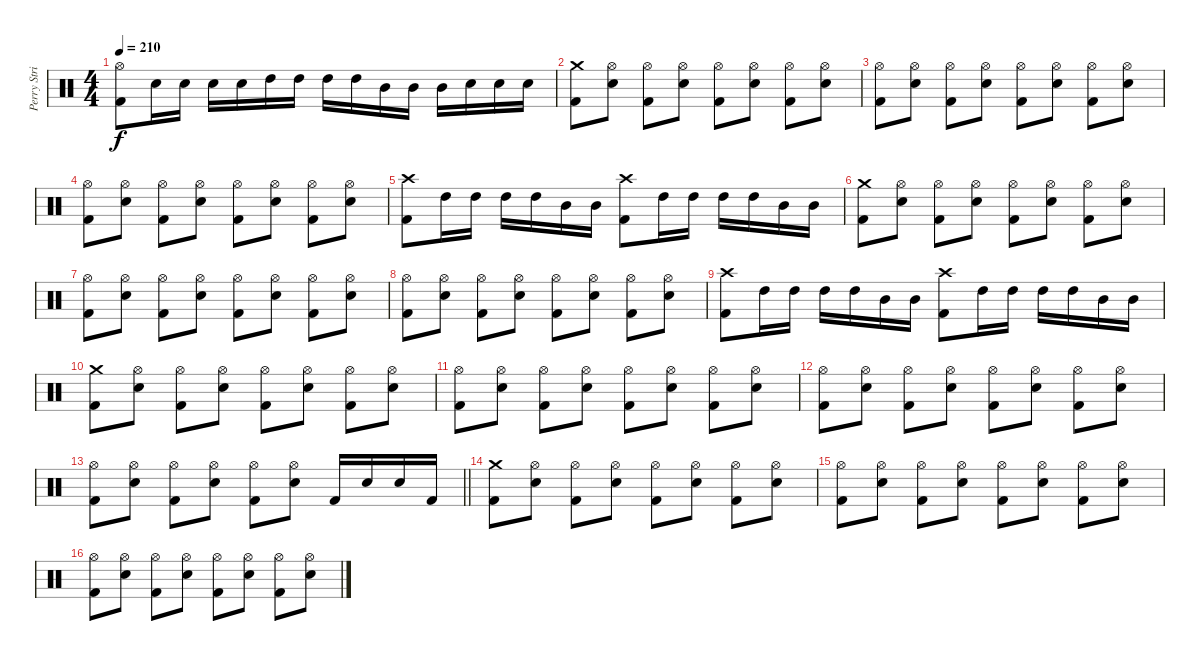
\track ("Perry Strickland" "Perry Stri") {instrument percussion}
\staff {score}
\articulation defaults
\ts (4 4)
\tempo 210
\clef neutral
\ks c
("Hi-Hat (open)" "Kick (hit) 2").8{dy f} "Electric Snare (hit)".16 "Electric Snare (hit)".16 "Electric Snare (hit)".16 "Electric Snare (hit)".16 "High Tom (hit)".16 "High Tom (hit)".16 "High Tom (hit)".16 "High Tom (hit)".16 "Mid Tom (hit)".16 "Mid Tom (hit)".16 "Mid Tom (hit)".16 "Electric Snare (hit)".16 "Electric Snare (hit)".16 "Electric Snare (hit)".16 |
("Crash medium (hit)" "Kick (hit) 2").8 ("Hi-Hat (open)" "Electric Snare (hit)").8 ("Hi-Hat (open)" "Kick (hit) 2").8 ("Hi-Hat (open)" "Electric Snare (hit)").8 ("Hi-Hat (open)" "Kick (hit) 2").8 ("Hi-Hat (open)" "Electric Snare (hit)").8 ("Hi-Hat (open)" "Kick (hit) 2").8 ("Hi-Hat (open)" "Electric Snare (hit)").8 |
("Hi-Hat (open)" "Kick (hit) 2").8 ("Hi-Hat (open)" "Electric Snare (hit)").8 ("Hi-Hat (open)" "Kick (hit) 2").8 ("Hi-Hat (open)" "Electric Snare (hit)").8 ("Hi-Hat (open)" "Kick (hit) 2").8 ("Hi-Hat (open)" "Electric Snare (hit)").8 ("Hi-Hat (open)" "Kick (hit) 2").8 ("Hi-Hat (open)" "Electric Snare (hit)").8 |
("Hi-Hat (open)" "Kick (hit) 2").8 ("Hi-Hat (open)" "Electric Snare (hit)").8 ("Hi-Hat (open)" "Kick (hit) 2").8 ("Hi-Hat (open)" "Electric Snare (hit)").8 ("Hi-Hat (open)" "Kick (hit) 2").8 ("Hi-Hat (open)" "Electric Snare (hit)").8 ("Hi-Hat (open)" "Kick (hit) 2").8 ("Hi-Hat (open)" "Electric Snare (hit)").8 |
("Crash high (hit)" "Kick (hit) 2").8 "High Tom (hit)".16 "High Tom (hit)".16 "High Tom (hit)".16 "High Tom (hit)".16 "Mid Tom (hit)".16 "Mid Tom (hit)".16 ("Crash high (hit)" "Kick (hit) 2").8 "High Tom (hit)".16 "High Tom (hit)".16 "High Tom (hit)".16 "High Tom (hit)".16 "Mid Tom (hit)".16 "Mid Tom (hit)".16 |
("Crash medium (hit)" "Kick (hit) 2").8 ("Hi-Hat (open)" "Electric Snare (hit)").8 ("Hi-Hat (open)" "Kick (hit) 2").8 ("Hi-Hat (open)" "Electric Snare (hit)").8 ("Hi-Hat (open)" "Kick (hit) 2").8 ("Hi-Hat (open)" "Electric Snare (hit)").8 ("Hi-Hat (open)" "Kick (hit) 2").8 ("Hi-Hat (open)" "Electric Snare (hit)").8 |
("Hi-Hat (open)" "Kick (hit) 2").8 ("Hi-Hat (open)" "Electric Snare (hit)").8 ("Hi-Hat (open)" "Kick (hit) 2").8 ("Hi-Hat (open)" "Electric Snare (hit)").8 ("Hi-Hat (open)" "Kick (hit) 2").8 ("Hi-Hat (open)" "Electric Snare (hit)").8 ("Hi-Hat (open)" "Kick (hit) 2").8 ("Hi-Hat (open)" "Electric Snare (hit)").8 |
("Hi-Hat (open)" "Kick (hit) 2").8 ("Hi-Hat (open)" "Electric Snare (hit)").8 ("Hi-Hat (open)" "Kick (hit) 2").8 ("Hi-Hat (open)" "Electric Snare (hit)").8 ("Hi-Hat (open)" "Kick (hit) 2").8 ("Hi-Hat (open)" "Electric Snare (hit)").8 ("Hi-Hat (open)" "Kick (hit) 2").8 ("Hi-Hat (open)" "Electric Snare (hit)").8 |
("Crash high (hit)" "Kick (hit) 2").8 "High Tom (hit)".16 "High Tom (hit)".16 "High Tom (hit)".16 "High Tom (hit)".16 "Mid Tom (hit)".16 "Mid Tom (hit)".16 ("Crash high (hit)" "Kick (hit) 2").8 "High Tom (hit)".16 "High Tom (hit)".16 "High Tom (hit)".16 "High Tom (hit)".16 "Mid Tom (hit)".16 "Mid Tom (hit)".16 |
("Crash medium (hit)" "Kick (hit) 2").8 ("Hi-Hat (open)" "Electric Snare (hit)").8 ("Hi-Hat (open)" "Kick (hit) 2").8 ("Hi-Hat (open)" "Electric Snare (hit)").8 ("Hi-Hat (open)" "Kick (hit) 2").8 ("Hi-Hat (open)" "Electric Snare (hit)").8 ("Hi-Hat (open)" "Kick (hit) 2").8 ("Hi-Hat (open)" "Electric Snare (hit)").8 |
("Hi-Hat (open)" "Kick (hit) 2").8 ("Hi-Hat (open)" "Electric Snare (hit)").8 ("Hi-Hat (open)" "Kick (hit) 2").8 ("Hi-Hat (open)" "Electric Snare (hit)").8 ("Hi-Hat (open)" "Kick (hit) 2").8 ("Hi-Hat (open)" "Electric Snare (hit)").8 ("Hi-Hat (open)" "Kick (hit) 2").8 ("Hi-Hat (open)" "Electric Snare (hit)").8 |
("Hi-Hat (open)" "Kick (hit) 2").8 ("Hi-Hat (open)" "Electric Snare (hit)").8 ("Hi-Hat (open)" "Kick (hit) 2").8 ("Hi-Hat (open)" "Electric Snare (hit)").8 ("Hi-Hat (open)" "Kick (hit) 2").8 ("Hi-Hat (open)" "Electric Snare (hit)").8 ("Hi-Hat (open)" "Kick (hit) 2").8 ("Hi-Hat (open)" "Electric Snare (hit)").8 |
\barLineRight lightlight
("Hi-Hat (open)" "Kick (hit) 2").8 ("Hi-Hat (open)" "Electric Snare (hit)").8 ("Hi-Hat (open)" "Kick (hit) 2").8 ("Hi-Hat (open)" "Electric Snare (hit)").8 ("Hi-Hat (open)" "Kick (hit) 2").8 ("Hi-Hat (open)" "Electric Snare (hit)").8 "Kick (hit) 2".16 "Electric Snare (hit)".16 "Electric Snare (hit)".16 "Kick (hit) 2".16 |
("Crash medium (hit)" "Kick (hit) 2").8 ("Hi-Hat (open)" "Electric Snare (hit)").8 ("Hi-Hat (open)" "Kick (hit) 2").8 ("Hi-Hat (open)" "Electric Snare (hit)").8 ("Hi-Hat (open)" "Kick (hit) 2").8 ("Hi-Hat (open)" "Electric Snare (hit)").8 ("Hi-Hat (open)" "Kick (hit) 2").8 ("Hi-Hat (open)" "Electric Snare (hit)").8 |
("Hi-Hat (open)" "Kick (hit) 2").8 ("Hi-Hat (open)" "Electric Snare (hit)").8 ("Hi-Hat (open)" "Kick (hit) 2").8 ("Hi-Hat (open)" "Electric Snare (hit)").8 ("Hi-Hat (open)" "Kick (hit) 2").8 ("Hi-Hat (open)" "Electric Snare (hit)").8 ("Hi-Hat (open)" "Kick (hit) 2").8 ("Hi-Hat (open)" "Electric Snare (hit)").8 |
("Hi-Hat (open)" "Kick (hit) 2").8 ("Hi-Hat (open)" "Electric Snare (hit)").8 ("Hi-Hat (open)" "Kick (hit) 2").8 ("Hi-Hat (open)" "Electric Snare (hit)").8 ("Hi-Hat (open)" "Kick (hit) 2").8 ("Hi-Hat (open)" "Electric Snare (hit)").8 ("Hi-Hat (open)" "Kick (hit) 2").8 ("Hi-Hat (open)" "Electric Snare (hit)").8
